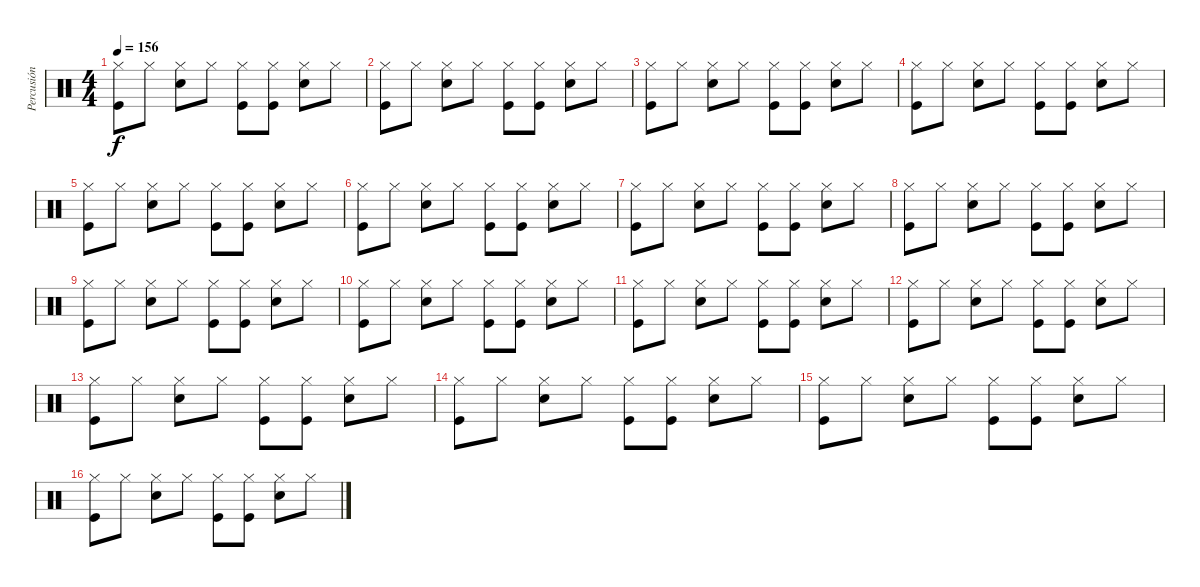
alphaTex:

\track ("Percusión" "Percusión") {instrument percussion}
\staff {score}
\articulation defaults
\ts (4 4)
\tempo 156
\clef neutral
\ks c
("Hi-Hat (closed)" "Kick (hit)").8{dy f} "Hi-Hat (closed)".8 ("Hi-Hat (closed)" "Electric Snare (hit)").8 "Hi-Hat (closed)".8 ("Hi-Hat (closed)" "Kick (hit)").8 ("Hi-Hat (closed)" "Kick (hit)").8 ("Hi-Hat (closed)" "Electric Snare (hit)").8 "Hi-Hat (closed)".8 |
("Hi-Hat (closed)" "Kick (hit)").8 "Hi-Hat (closed)".8 ("Hi-Hat (closed)" "Electric Snare (hit)").8 "Hi-Hat (closed)".8 ("Hi-Hat (closed)" "Kick (hit)").8 ("Hi-Hat (closed)" "Kick (hit)").8 ("Hi-Hat (closed)" "Electric Snare (hit)").8 "Hi-Hat (closed)".8 |
("Hi-Hat (closed)" "Kick (hit)").8 "Hi-Hat (closed)".8 ("Hi-Hat (closed)" "Electric Snare (hit)").8 "Hi-Hat (closed)".8 ("Hi-Hat (closed)" "Kick (hit)").8 ("Hi-Hat (closed)" "Kick (hit)").8 ("Hi-Hat (closed)" "Electric Snare (hit)").8 "Hi-Hat (closed)".8 |
("Hi-Hat (closed)" "Kick (hit)").8 "Hi-Hat (closed)".8 ("Hi-Hat (closed)" "Electric Snare (hit)").8 "Hi-Hat (closed)".8 ("Hi-Hat (closed)" "Kick (hit)").8 ("Hi-Hat (closed)" "Kick (hit)").8 ("Hi-Hat (closed)" "Electric Snare (hit)").8 "Hi-Hat (closed)".8 |
("Hi-Hat (closed)" "Kick (hit)").8 "Hi-Hat (closed)".8 ("Hi-Hat (closed)" "Electric Snare (hit)").8 "Hi-Hat (closed)".8 ("Hi-Hat (closed)" "Kick (hit)").8 ("Hi-Hat (closed)" "Kick (hit)").8 ("Hi-Hat (closed)" "Electric Snare (hit)").8 "Hi-Hat (closed)".8 |
("Hi-Hat (closed)" "Kick (hit)").8 "Hi-Hat (closed)".8 ("Hi-Hat (closed)" "Electric Snare (hit)").8 "Hi-Hat (closed)".8 ("Hi-Hat (closed)" "Kick (hit)").8 ("Hi-Hat (closed)" "Kick (hit)").8 ("Hi-Hat (closed)" "Electric Snare (hit)").8 "Hi-Hat (closed)".8 |
("Hi-Hat (closed)" "Kick (hit)").8 "Hi-Hat (closed)".8 ("Hi-Hat (closed)" "Electric Snare (hit)").8 "Hi-Hat (closed)".8 ("Hi-Hat (closed)" "Kick (hit)").8 ("Hi-Hat (closed)" "Kick (hit)").8 ("Hi-Hat (closed)" "Electric Snare (hit)").8 "Hi-Hat (closed)".8 |
("Hi-Hat (closed)" "Kick (hit)").8 "Hi-Hat (closed)".8 ("Hi-Hat (closed)" "Electric Snare (hit)").8 "Hi-Hat (closed)".8 ("Hi-Hat (closed)" "Kick (hit)").8 ("Hi-Hat (closed)" "Kick (hit)").8 ("Hi-Hat (closed)" "Electric Snare (hit)").8 "Hi-Hat (closed)".8 |
("Hi-Hat (closed)" "Kick (hit)").8 "Hi-Hat (closed)".8 ("Hi-Hat (closed)" "Electric Snare (hit)").8 "Hi-Hat (closed)".8 ("Hi-Hat (closed)" "Kick (hit)").8 ("Hi-Hat (closed)" "Kick (hit)").8 ("Hi-Hat (closed)" "Electric Snare (hit)").8 "Hi-Hat (closed)".8 |
("Hi-Hat (closed)" "Kick (hit)").8 "Hi-Hat (closed)".8 ("Hi-Hat (closed)" "Electric Snare (hit)").8 "Hi-Hat (closed)".8 ("Hi-Hat (closed)" "Kick (hit)").8 ("Hi-Hat (closed)" "Kick (hit)").8 ("Hi-Hat (closed)" "Electric Snare (hit)").8 "Hi-Hat (closed)".8 |
("Hi-Hat (closed)" "Kick (hit)").8 "Hi-Hat (closed)".8 ("Hi-Hat (closed)" "Electric Snare (hit)").8 "Hi-Hat (closed)".8 ("Hi-Hat (closed)" "Kick (hit)").8 ("Hi-Hat (closed)" "Kick (hit)").8 ("Hi-Hat (closed)" "Electric Snare (hit)").8 "Hi-Hat (closed)".8 |
("Hi-Hat (closed)" "Kick (hit)").8 "Hi-Hat (closed)".8 ("Hi-Hat (closed)" "Electric Snare (hit)").8 "Hi-Hat (closed)".8 ("Hi-Hat (closed)" "Kick (hit)").8 ("Hi-Hat (closed)" "Kick (hit)").8 ("Hi-Hat (closed)" "Electric Snare (hit)").8 "Hi-Hat (closed)".8 |
("Hi-Hat (closed)" "Kick (hit)").8 "Hi-Hat (closed)".8 ("Hi-Hat (closed)" "Electric Snare (hit)").8 "Hi-Hat (closed)".8 ("Hi-Hat (closed)" "Kick (hit)").8 ("Hi-Hat (closed)" "Kick (hit)").8 ("Hi-Hat (closed)" "Electric Snare (hit)").8 "Hi-Hat (closed)".8 |
("Hi-Hat (closed)" "Kick (hit)").8 "Hi-Hat (closed)".8 ("Hi-Hat (closed)" "Electric Snare (hit)").8 "Hi-Hat (closed)".8 ("Hi-Hat (closed)" "Kick (hit)").8 ("Hi-Hat (closed)" "Kick (hit)").8 ("Hi-Hat (closed)" "Electric Snare (hit)").8 "Hi-Hat (closed)".8 |
("Hi-Hat (closed)" "Kick (hit)").8 "Hi-Hat (closed)".8 ("Hi-Hat (closed)" "Electric Snare (hit)").8 "Hi-Hat (closed)".8 ("Hi-Hat (closed)" "Kick (hit)").8 ("Hi-Hat (closed)" "Kick (hit)").8 ("Hi-Hat (closed)" "Electric Snare (hit)").8 "Hi-Hat (closed)".8 |
("Hi-Hat (closed)" "Kick (hit)").8 "Hi-Hat (closed)".8 ("Hi-Hat (closed)" "Electric Snare (hit)").8 "Hi-Hat (closed)".8 ("Hi-Hat (closed)" "Kick (hit)").8 ("Hi-Hat (closed)" "Kick (hit)").8 ("Hi-Hat (closed)" "Electric Snare (hit)").8 "Hi-Hat (closed)".8
